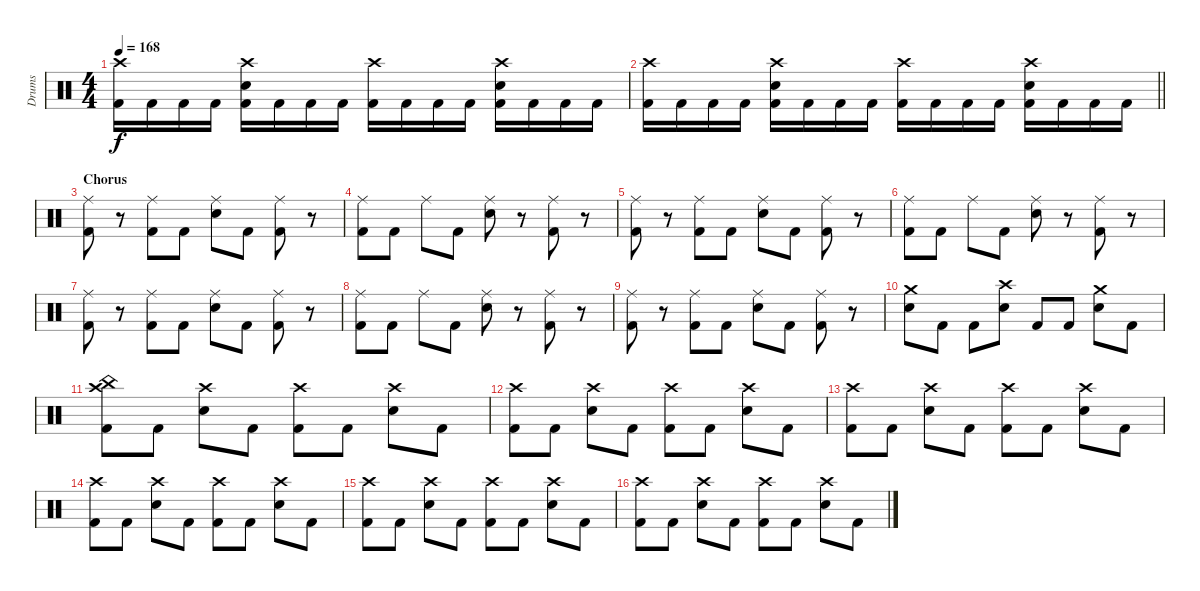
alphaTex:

\track ("Drums" "Drums") {instrument percussion}
\staff {score}
\articulation defaults
\ts (4 4)
\tempo 168
\clef neutral
\ks c
("Crash high (hit)" "Kick (hit) 2").16{dy f} "Kick (hit) 2".16 "Kick (hit) 2".16 "Kick (hit) 2".16 ("Crash high (hit)" "Snare (hit) 2" "Kick (hit) 2").16 "Kick (hit) 2".16 "Kick (hit) 2".16 "Kick (hit) 2".16 ("Crash high (hit)" "Kick (hit) 2").16 "Kick (hit) 2".16 "Kick (hit) 2".16 "Kick (hit) 2".16 ("Crash high (hit)" "Snare (hit) 2" "Kick (hit) 2").16 "Kick (hit) 2".16 "Kick (hit) 2".16 "Kick (hit) 2".16 |
\barLineRight lightlight
("Crash high (hit)" "Kick (hit) 2").16 "Kick (hit) 2".16 "Kick (hit) 2".16 "Kick (hit) 2".16 ("Crash high (hit)" "Snare (hit) 2" "Kick (hit) 2").16 "Kick (hit) 2".16 "Kick (hit) 2".16 "Kick (hit) 2".16 ("Crash high (hit)" "Kick (hit) 2").16 "Kick (hit) 2".16 "Kick (hit) 2".16 "Kick (hit) 2".16 ("Crash high (hit)" "Snare (hit) 2" "Kick (hit) 2").16 "Kick (hit) 2".16 "Kick (hit) 2".16 "Kick (hit) 2".16 |
\section ("" "Chorus")
("Ride (middle)" "Kick (hit) 2").8 r.8 ("Ride (middle)" "Kick (hit) 2").8 "Kick (hit) 2".8 ("Ride (middle)" "Snare (hit) 2").8 "Kick (hit) 2".8 ("Ride (middle)" "Kick (hit) 2").8 r.8 |
("Ride (middle)" "Kick (hit) 2").8 "Kick (hit) 2".8 "Ride (middle)".8 "Kick (hit) 2".8 ("Ride (middle)" "Snare (hit) 2").8 r.8 ("Ride (middle)" "Kick (hit) 2").8 r.8 |
("Ride (middle)" "Kick (hit) 2").8 r.8 ("Ride (middle)" "Kick (hit) 2").8 "Kick (hit) 2".8 ("Ride (middle)" "Snare (hit) 2").8 "Kick (hit) 2".8 ("Ride (middle)" "Kick (hit) 2").8 r.8 |
("Ride (middle)" "Kick (hit) 2").8 "Kick (hit) 2".8 "Ride (middle)".8 "Kick (hit) 2".8 ("Ride (middle)" "Snare (hit) 2").8 r.8 ("Ride (middle)" "Kick (hit) 2").8 r.8 |
("Ride (middle)" "Kick (hit) 2").8 r.8 ("Ride (middle)" "Kick (hit) 2").8 "Kick (hit) 2".8 ("Ride (middle)" "Snare (hit) 2").8 "Kick (hit) 2".8 ("Ride (middle)" "Kick (hit) 2").8 r.8 |
("Ride (middle)" "Kick (hit) 2").8 "Kick (hit) 2".8 "Ride (middle)".8 "Kick (hit) 2".8 ("Ride (middle)" "Snare (hit) 2").8 r.8 ("Ride (middle)" "Kick (hit) 2").8 r.8 |
("Ride (middle)" "Kick (hit) 2").8 r.8 ("Ride (middle)" "Kick (hit) 2").8 "Kick (hit) 2".8 ("Ride (middle)" "Snare (hit) 2").8 "Kick (hit) 2".8 ("Ride (middle)" "Kick (hit) 2").8 r.8 |
("Crash medium (hit)" "Snare (hit) 2").8 "Kick (hit) 2".8 "Kick (hit) 2".8 ("Crash high (hit)" "Snare (hit) 2").8 "Kick (hit) 2".8 "Kick (hit) 2".8 ("Crash medium (hit)" "Snare (hit) 2").8 "Kick (hit) 2".8 |
("Crash high (hit)" "China (hit)" "Kick (hit) 2").8 "Kick (hit) 2".8 ("Crash high (hit)" "Snare (hit) 2").8 "Kick (hit) 2".8 ("Crash high (hit)" "Kick (hit) 2").8 "Kick (hit) 2".8 ("Crash high (hit)" "Snare (hit) 2").8 "Kick (hit) 2".8 |
("Crash high (hit)" "Kick (hit) 2").8 "Kick (hit) 2".8 ("Crash high (hit)" "Snare (hit) 2").8 "Kick (hit) 2".8 ("Crash high (hit)" "Kick (hit) 2").8 "Kick (hit) 2".8 ("Crash high (hit)" "Snare (hit) 2").8 "Kick (hit) 2".8 |
("Crash high (hit)" "Kick (hit) 2").8 "Kick (hit) 2".8 ("Crash high (hit)" "Snare (hit) 2").8 "Kick (hit) 2".8 ("Crash high (hit)" "Kick (hit) 2").8 "Kick (hit) 2".8 ("Crash high (hit)" "Snare (hit) 2").8 "Kick (hit) 2".8 |
("Crash high (hit)" "Kick (hit) 2").8 "Kick (hit) 2".8 ("Crash high (hit)" "Snare (hit) 2").8 "Kick (hit) 2".8 ("Crash high (hit)" "Kick (hit) 2").8 "Kick (hit) 2".8 ("Crash high (hit)" "Snare (hit) 2").8 "Kick (hit) 2".8 |
("Crash high (hit)" "Kick (hit) 2").8 "Kick (hit) 2".8 ("Crash high (hit)" "Snare (hit) 2").8 "Kick (hit) 2".8 ("Crash high (hit)" "Kick (hit) 2").8 "Kick (hit) 2".8 ("Crash high (hit)" "Snare (hit) 2").8 "Kick (hit) 2".8 |
("Crash high (hit)" "Kick (hit) 2").8 "Kick (hit) 2".8 ("Crash high (hit)" "Snare (hit) 2").8 "Kick (hit) 2".8 ("Crash high (hit)" "Kick (hit) 2").8 "Kick (hit) 2".8 ("Crash high (hit)" "Snare (hit) 2").8 "Kick (hit) 2".8
